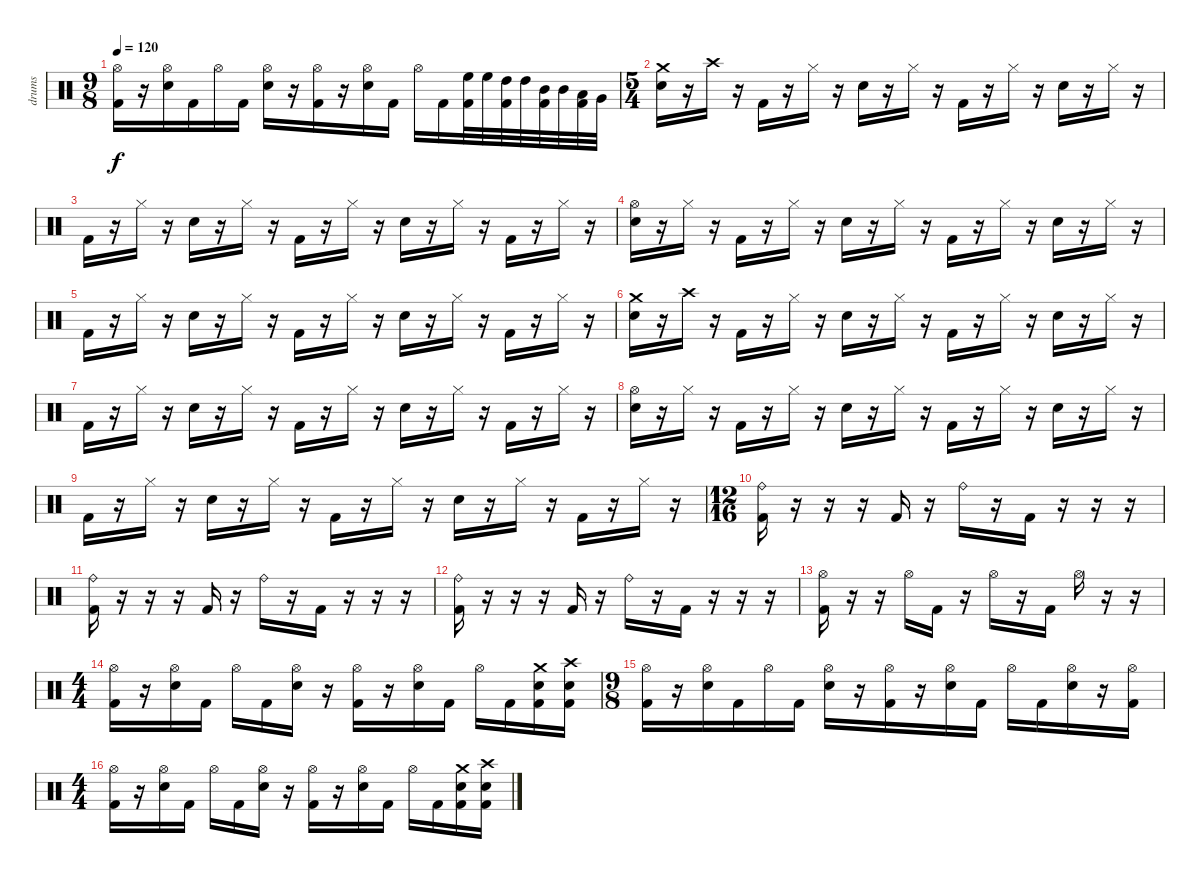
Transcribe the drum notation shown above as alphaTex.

\track ("drums" "drums") {instrument percussion}
\staff {score}
\articulation defaults
\ts (9 8)
\tempo 120
\clef neutral
\ks c
("Hi-Hat (open)" "Kick (hit) 2").16{dy f} r.16 ("Hi-Hat (open)" "Snare (hit) 2").16 "Kick (hit) 2".16 "Hi-Hat (open)".16 "Kick (hit) 2".16 ("Hi-Hat (open)" "Snare (hit) 2").16 r.16 ("Hi-Hat (open)" "Kick (hit) 2").16 r.16 ("Hi-Hat (open)" "Snare (hit) 2").16 "Kick (hit) 2".16 "Hi-Hat (open)".16 "Kick (hit) 2".16 ("High Floor Tom (hit)" "Kick (hit) 2").32 "High Floor Tom (hit)".32 ("High Tom (hit)" "Kick (hit) 2").32 "High Tom (hit)".32 ("Mid Tom (hit)" "Kick (hit) 2").32 "Mid Tom (hit)".32 ("Low Tom (hit)" "Kick (hit) 2").32 "Very Low Tom (hit)".32 |
\ts (5 4)
("Crash medium (hit)" "Snare (hit) 2").16 r.16 "Crash high (hit)".16 r.16 "Kick (hit) 2".16 r.16 "Hi-Hat (closed)".16 r.16 "Snare (hit) 2".16 r.16 "Hi-Hat (closed)".16 r.16 "Kick (hit) 2".16 r.16 "Hi-Hat (closed)".16 r.16 "Snare (hit) 2".16 r.16 "Hi-Hat (closed)".16 r.16 |
"Kick (hit) 2".16 r.16 "Hi-Hat (closed)".16 r.16 "Snare (hit) 2".16 r.16 "Hi-Hat (closed)".16 r.16 "Kick (hit) 2".16 r.16 "Hi-Hat (closed)".16 r.16 "Snare (hit) 2".16 r.16 "Hi-Hat (closed)".16 r.16 "Kick (hit) 2".16 r.16 "Hi-Hat (closed)".16 r.16 |
("Hi-Hat (open)" "Snare (hit) 2").16 r.16 "Hi-Hat (closed)".16 r.16 "Kick (hit) 2".16 r.16 "Hi-Hat (closed)".16 r.16 "Snare (hit) 2".16 r.16 "Hi-Hat (closed)".16 r.16 "Kick (hit) 2".16 r.16 "Hi-Hat (closed)".16 r.16 "Snare (hit) 2".16 r.16 "Hi-Hat (closed)".16 r.16 |
"Kick (hit) 2".16 r.16 "Hi-Hat (closed)".16 r.16 "Snare (hit) 2".16 r.16 "Hi-Hat (closed)".16 r.16 "Kick (hit) 2".16 r.16 "Hi-Hat (closed)".16 r.16 "Snare (hit) 2".16 r.16 "Hi-Hat (closed)".16 r.16 "Kick (hit) 2".16 r.16 "Hi-Hat (closed)".16 r.16 |
("Crash medium (hit)" "Snare (hit) 2").16 r.16 "Crash high (hit)".16 r.16 "Kick (hit) 2".16 r.16 "Hi-Hat (closed)".16 r.16 "Snare (hit) 2".16 r.16 "Hi-Hat (closed)".16 r.16 "Kick (hit) 2".16 r.16 "Hi-Hat (closed)".16 r.16 "Snare (hit) 2".16 r.16 "Hi-Hat (closed)".16 r.16 |
"Kick (hit) 2".16 r.16 "Hi-Hat (closed)".16 r.16 "Snare (hit) 2".16 r.16 "Hi-Hat (closed)".16 r.16 "Kick (hit) 2".16 r.16 "Hi-Hat (closed)".16 r.16 "Snare (hit) 2".16 r.16 "Hi-Hat (closed)".16 r.16 "Kick (hit) 2".16 r.16 "Hi-Hat (closed)".16 r.16 |
("Hi-Hat (open)" "Snare (hit) 2").16 r.16 "Hi-Hat (closed)".16 r.16 "Kick (hit) 2".16 r.16 "Hi-Hat (closed)".16 r.16 "Snare (hit) 2".16 r.16 "Hi-Hat (closed)".16 r.16 "Kick (hit) 2".16 r.16 "Hi-Hat (closed)".16 r.16 "Snare (hit) 2".16 r.16 "Hi-Hat (closed)".16 r.16 |
"Kick (hit) 2".16 r.16 "Hi-Hat (closed)".16 r.16 "Snare (hit) 2".16 r.16 "Hi-Hat (closed)".16 r.16 "Kick (hit) 2".16 r.16 "Hi-Hat (closed)".16 r.16 "Snare (hit) 2".16 r.16 "Hi-Hat (closed)".16 r.16 "Kick (hit) 2".16 r.16 "Hi-Hat (closed)".16 r.16 |
\ts (12 16)
("Ride (bell)" "Kick (hit) 2").16 r.16 r.16 r.16 "Kick (hit) 2".16 r.16 "Ride (bell)".16 r.16 "Kick (hit) 2".16 r.16 r.16 r.16 |
("Ride (bell)" "Kick (hit) 2").16 r.16 r.16 r.16 "Kick (hit) 2".16 r.16 "Ride (bell)".16 r.16 "Kick (hit) 2".16 r.16 r.16 r.16 |
("Ride (bell)" "Kick (hit) 2").16 r.16 r.16 r.16 "Kick (hit) 2".16 r.16 "Ride (bell)".16 r.16 "Kick (hit) 2".16 r.16 r.16 r.16 |
("Hi-Hat (open)" "Kick (hit) 2").16 r.16 r.16 "Hi-Hat (open)".16 "Kick (hit) 2".16 r.16 "Hi-Hat (open)".16 r.16 "Kick (hit) 2".16 "Hi-Hat (open)".16 r.16 r.16 |
\ts (4 4)
("Hi-Hat (open)" "Kick (hit) 2").16 r.16 ("Hi-Hat (open)" "Snare (hit) 2").16 "Kick (hit) 2".16 "Hi-Hat (open)".16 "Kick (hit) 2".16 ("Hi-Hat (open)" "Snare (hit) 2").16 r.16 ("Hi-Hat (open)" "Kick (hit) 2").16 r.16 ("Hi-Hat (open)" "Snare (hit) 2").16 "Kick (hit) 2".16 "Hi-Hat (open)".16 "Kick (hit) 2".16 ("Crash medium (hit)" "Snare (hit) 2" "Kick (hit) 2").16 ("Crash high (hit)" "Snare (hit) 2" "Kick (hit) 2").16 |
\ts (9 8)
("Hi-Hat (open)" "Kick (hit) 2").16 r.16 ("Hi-Hat (open)" "Snare (hit) 2").16 "Kick (hit) 2".16 "Hi-Hat (open)".16 "Kick (hit) 2".16 ("Hi-Hat (open)" "Snare (hit) 2").16 r.16 ("Hi-Hat (open)" "Kick (hit) 2").16 r.16 ("Hi-Hat (open)" "Snare (hit) 2").16 "Kick (hit) 2".16 "Hi-Hat (open)".16 "Kick (hit) 2".16 ("Hi-Hat (open)" "Snare (hit) 2").16 r.16 ("Hi-Hat (open)" "Kick (hit) 2").16 |
\ts (4 4)
("Hi-Hat (open)" "Kick (hit) 2").16 r.16 ("Hi-Hat (open)" "Snare (hit) 2").16 "Kick (hit) 2".16 "Hi-Hat (open)".16 "Kick (hit) 2".16 ("Hi-Hat (open)" "Snare (hit) 2").16 r.16 ("Hi-Hat (open)" "Kick (hit) 2").16 r.16 ("Hi-Hat (open)" "Snare (hit) 2").16 "Kick (hit) 2".16 "Hi-Hat (open)".16 "Kick (hit) 2".16 ("Crash medium (hit)" "Snare (hit) 2" "Kick (hit) 2").16 ("Crash high (hit)" "Snare (hit) 2" "Kick (hit) 2").16
